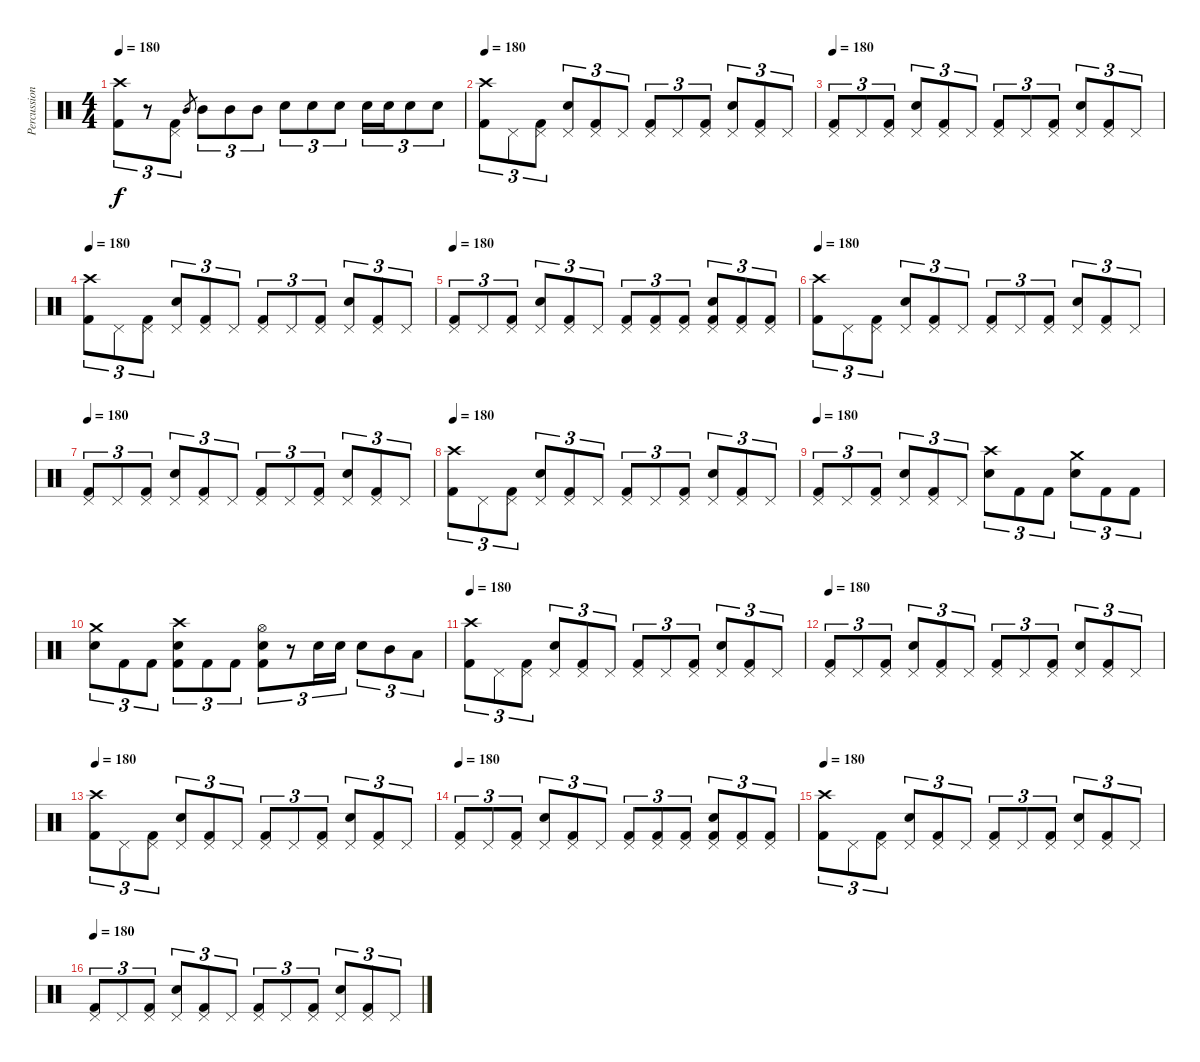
\track ("Percussion" "Percussion") {instrument percussion}
\staff {score}
\articulation defaults
\ts (4 4)
\tempo 180
\clef neutral
\ks c
("Crash high (hit)" "Kick (hit) 2").8{tu (3 2) dy f} r.8{tu (3 2)} ("Pedal Hi-Hat (hit)" "Kick (hit) 2").8{tu (3 2)} "Mid Tom (hit)".8{gr} "Mid Tom (hit)".8{tu (3 2)} "Mid Tom (hit)".8{tu (3 2)} "Mid Tom (hit)".8{tu (3 2)} "Snare (hit) 2".8{tu (3 2)} "Snare (hit) 2".8{tu (3 2)} "Snare (hit) 2".8{tu (3 2)} "Snare (hit) 2".16{tu (3 2)} "Snare (hit) 2".16{tu (3 2)} "Snare (hit) 2".8{tu (3 2)} "Snare (hit) 2".8{tu (3 2)} |
\tempo 180
("Crash high (hit)" "Kick (hit) 2").8{tu (3 2)} "Pedal Hi-Hat (hit)".8{tu (3 2)} ("Pedal Hi-Hat (hit)" "Kick (hit) 2").8{tu (3 2)} ("Pedal Hi-Hat (hit)" "Snare (hit) 2").8{tu (3 2)} ("Pedal Hi-Hat (hit)" "Kick (hit) 2").8{tu (3 2)} "Pedal Hi-Hat (hit)".8{tu (3 2)} ("Pedal Hi-Hat (hit)" "Kick (hit) 2").8{tu (3 2)} "Pedal Hi-Hat (hit)".8{tu (3 2)} ("Pedal Hi-Hat (hit)" "Kick (hit) 2").8{tu (3 2)} ("Pedal Hi-Hat (hit)" "Snare (hit) 2").8{tu (3 2)} ("Pedal Hi-Hat (hit)" "Kick (hit) 2").8{tu (3 2)} "Pedal Hi-Hat (hit)".8{tu (3 2)} |
\tempo 180
("Pedal Hi-Hat (hit)" "Kick (hit) 2").8{tu (3 2)} "Pedal Hi-Hat (hit)".8{tu (3 2)} ("Pedal Hi-Hat (hit)" "Kick (hit) 2").8{tu (3 2)} ("Pedal Hi-Hat (hit)" "Snare (hit) 2").8{tu (3 2)} ("Pedal Hi-Hat (hit)" "Kick (hit) 2").8{tu (3 2)} "Pedal Hi-Hat (hit)".8{tu (3 2)} ("Pedal Hi-Hat (hit)" "Kick (hit) 2").8{tu (3 2)} "Pedal Hi-Hat (hit)".8{tu (3 2)} ("Pedal Hi-Hat (hit)" "Kick (hit) 2").8{tu (3 2)} ("Pedal Hi-Hat (hit)" "Snare (hit) 2").8{tu (3 2)} ("Pedal Hi-Hat (hit)" "Kick (hit) 2").8{tu (3 2)} "Pedal Hi-Hat (hit)".8{tu (3 2)} |
\tempo 180
("Crash high (hit)" "Kick (hit) 2").8{tu (3 2)} "Pedal Hi-Hat (hit)".8{tu (3 2)} ("Pedal Hi-Hat (hit)" "Kick (hit) 2").8{tu (3 2)} ("Pedal Hi-Hat (hit)" "Snare (hit) 2").8{tu (3 2)} ("Pedal Hi-Hat (hit)" "Kick (hit) 2").8{tu (3 2)} "Pedal Hi-Hat (hit)".8{tu (3 2)} ("Pedal Hi-Hat (hit)" "Kick (hit) 2").8{tu (3 2)} "Pedal Hi-Hat (hit)".8{tu (3 2)} ("Pedal Hi-Hat (hit)" "Kick (hit) 2").8{tu (3 2)} ("Pedal Hi-Hat (hit)" "Snare (hit) 2").8{tu (3 2)} ("Pedal Hi-Hat (hit)" "Kick (hit) 2").8{tu (3 2)} "Pedal Hi-Hat (hit)".8{tu (3 2)} |
\tempo 180
("Pedal Hi-Hat (hit)" "Kick (hit) 2").8{tu (3 2)} "Pedal Hi-Hat (hit)".8{tu (3 2)} ("Pedal Hi-Hat (hit)" "Kick (hit) 2").8{tu (3 2)} ("Pedal Hi-Hat (hit)" "Snare (hit) 2").8{tu (3 2)} ("Pedal Hi-Hat (hit)" "Kick (hit) 2").8{tu (3 2)} "Pedal Hi-Hat (hit)".8{tu (3 2)} ("Pedal Hi-Hat (hit)" "Kick (hit) 2").8{tu (3 2)} ("Pedal Hi-Hat (hit)" "Kick (hit) 2").8{tu (3 2)} ("Pedal Hi-Hat (hit)" "Kick (hit) 2").8{tu (3 2)} ("Pedal Hi-Hat (hit)" "Snare (hit) 2" "Kick (hit) 2").8{tu (3 2)} ("Pedal Hi-Hat (hit)" "Kick (hit) 2").8{tu (3 2)} ("Pedal Hi-Hat (hit)" "Kick (hit) 2").8{tu (3 2)} |
\tempo 180
("Crash high (hit)" "Kick (hit) 2").8{tu (3 2)} "Pedal Hi-Hat (hit)".8{tu (3 2)} ("Pedal Hi-Hat (hit)" "Kick (hit) 2").8{tu (3 2)} ("Pedal Hi-Hat (hit)" "Snare (hit) 2").8{tu (3 2)} ("Pedal Hi-Hat (hit)" "Kick (hit) 2").8{tu (3 2)} "Pedal Hi-Hat (hit)".8{tu (3 2)} ("Pedal Hi-Hat (hit)" "Kick (hit) 2").8{tu (3 2)} "Pedal Hi-Hat (hit)".8{tu (3 2)} ("Pedal Hi-Hat (hit)" "Kick (hit) 2").8{tu (3 2)} ("Pedal Hi-Hat (hit)" "Snare (hit) 2").8{tu (3 2)} ("Pedal Hi-Hat (hit)" "Kick (hit) 2").8{tu (3 2)} "Pedal Hi-Hat (hit)".8{tu (3 2)} |
\tempo 180
("Pedal Hi-Hat (hit)" "Kick (hit) 2").8{tu (3 2)} "Pedal Hi-Hat (hit)".8{tu (3 2)} ("Pedal Hi-Hat (hit)" "Kick (hit) 2").8{tu (3 2)} ("Pedal Hi-Hat (hit)" "Snare (hit) 2").8{tu (3 2)} ("Pedal Hi-Hat (hit)" "Kick (hit) 2").8{tu (3 2)} "Pedal Hi-Hat (hit)".8{tu (3 2)} ("Pedal Hi-Hat (hit)" "Kick (hit) 2").8{tu (3 2)} "Pedal Hi-Hat (hit)".8{tu (3 2)} ("Pedal Hi-Hat (hit)" "Kick (hit) 2").8{tu (3 2)} ("Pedal Hi-Hat (hit)" "Snare (hit) 2").8{tu (3 2)} ("Pedal Hi-Hat (hit)" "Kick (hit) 2").8{tu (3 2)} "Pedal Hi-Hat (hit)".8{tu (3 2)} |
\tempo 180
("Crash high (hit)" "Kick (hit) 2").8{tu (3 2)} "Pedal Hi-Hat (hit)".8{tu (3 2)} ("Pedal Hi-Hat (hit)" "Kick (hit) 2").8{tu (3 2)} ("Pedal Hi-Hat (hit)" "Snare (hit) 2").8{tu (3 2)} ("Pedal Hi-Hat (hit)" "Kick (hit) 2").8{tu (3 2)} "Pedal Hi-Hat (hit)".8{tu (3 2)} ("Pedal Hi-Hat (hit)" "Kick (hit) 2").8{tu (3 2)} "Pedal Hi-Hat (hit)".8{tu (3 2)} ("Pedal Hi-Hat (hit)" "Kick (hit) 2").8{tu (3 2)} ("Pedal Hi-Hat (hit)" "Snare (hit) 2").8{tu (3 2)} ("Pedal Hi-Hat (hit)" "Kick (hit) 2").8{tu (3 2)} "Pedal Hi-Hat (hit)".8{tu (3 2)} |
\tempo 180
("Pedal Hi-Hat (hit)" "Kick (hit) 2").8{tu (3 2)} "Pedal Hi-Hat (hit)".8{tu (3 2)} ("Pedal Hi-Hat (hit)" "Kick (hit) 2").8{tu (3 2)} ("Pedal Hi-Hat (hit)" "Snare (hit) 2").8{tu (3 2)} ("Pedal Hi-Hat (hit)" "Kick (hit) 2").8{tu (3 2)} "Pedal Hi-Hat (hit)".8{tu (3 2)} ("Crash high (hit)" "Snare (hit) 2").8{tu (3 2)} "Kick (hit) 2".8{tu (3 2)} "Kick (hit) 2".8{tu (3 2)} ("Crash medium (hit)" "Snare (hit) 2").8{tu (3 2)} "Kick (hit) 2".8{tu (3 2)} "Kick (hit) 2".8{tu (3 2)} |
("Crash medium (hit)" "Snare (hit) 2").8{tu (3 2)} "Kick (hit) 2".8{tu (3 2)} "Kick (hit) 2".8{tu (3 2)} ("Crash high (hit)" "Snare (hit) 2" "Kick (hit) 2").8{tu (3 2)} "Kick (hit) 2".8{tu (3 2)} "Kick (hit) 2".8{tu (3 2)} ("Hi-Hat (open)" "Snare (hit) 2" "Kick (hit) 2").8{tu (3 2)} r.8{tu (3 2)} "Snare (hit) 2".16{tu (3 2)} "Snare (hit) 2".16{tu (3 2)} "Snare (hit) 2".8{tu (3 2)} "Mid Tom (hit)".8{tu (3 2)} "Low Tom (hit)".8{tu (3 2)} |
\tempo 180
("Crash high (hit)" "Kick (hit) 2").8{tu (3 2)} "Pedal Hi-Hat (hit)".8{tu (3 2)} ("Pedal Hi-Hat (hit)" "Kick (hit) 2").8{tu (3 2)} ("Pedal Hi-Hat (hit)" "Snare (hit) 2").8{tu (3 2)} ("Pedal Hi-Hat (hit)" "Kick (hit) 2").8{tu (3 2)} "Pedal Hi-Hat (hit)".8{tu (3 2)} ("Pedal Hi-Hat (hit)" "Kick (hit) 2").8{tu (3 2)} "Pedal Hi-Hat (hit)".8{tu (3 2)} ("Pedal Hi-Hat (hit)" "Kick (hit) 2").8{tu (3 2)} ("Pedal Hi-Hat (hit)" "Snare (hit) 2").8{tu (3 2)} ("Pedal Hi-Hat (hit)" "Kick (hit) 2").8{tu (3 2)} "Pedal Hi-Hat (hit)".8{tu (3 2)} |
\tempo 180
("Pedal Hi-Hat (hit)" "Kick (hit) 2").8{tu (3 2)} "Pedal Hi-Hat (hit)".8{tu (3 2)} ("Pedal Hi-Hat (hit)" "Kick (hit) 2").8{tu (3 2)} ("Pedal Hi-Hat (hit)" "Snare (hit) 2").8{tu (3 2)} ("Pedal Hi-Hat (hit)" "Kick (hit) 2").8{tu (3 2)} "Pedal Hi-Hat (hit)".8{tu (3 2)} ("Pedal Hi-Hat (hit)" "Kick (hit) 2").8{tu (3 2)} "Pedal Hi-Hat (hit)".8{tu (3 2)} ("Pedal Hi-Hat (hit)" "Kick (hit) 2").8{tu (3 2)} ("Pedal Hi-Hat (hit)" "Snare (hit) 2").8{tu (3 2)} ("Pedal Hi-Hat (hit)" "Kick (hit) 2").8{tu (3 2)} "Pedal Hi-Hat (hit)".8{tu (3 2)} |
\tempo 180
("Crash high (hit)" "Kick (hit) 2").8{tu (3 2)} "Pedal Hi-Hat (hit)".8{tu (3 2)} ("Pedal Hi-Hat (hit)" "Kick (hit) 2").8{tu (3 2)} ("Pedal Hi-Hat (hit)" "Snare (hit) 2").8{tu (3 2)} ("Pedal Hi-Hat (hit)" "Kick (hit) 2").8{tu (3 2)} "Pedal Hi-Hat (hit)".8{tu (3 2)} ("Pedal Hi-Hat (hit)" "Kick (hit) 2").8{tu (3 2)} "Pedal Hi-Hat (hit)".8{tu (3 2)} ("Pedal Hi-Hat (hit)" "Kick (hit) 2").8{tu (3 2)} ("Pedal Hi-Hat (hit)" "Snare (hit) 2").8{tu (3 2)} ("Pedal Hi-Hat (hit)" "Kick (hit) 2").8{tu (3 2)} "Pedal Hi-Hat (hit)".8{tu (3 2)} |
\tempo 180
("Pedal Hi-Hat (hit)" "Kick (hit) 2").8{tu (3 2)} "Pedal Hi-Hat (hit)".8{tu (3 2)} ("Pedal Hi-Hat (hit)" "Kick (hit) 2").8{tu (3 2)} ("Pedal Hi-Hat (hit)" "Snare (hit) 2").8{tu (3 2)} ("Pedal Hi-Hat (hit)" "Kick (hit) 2").8{tu (3 2)} "Pedal Hi-Hat (hit)".8{tu (3 2)} ("Pedal Hi-Hat (hit)" "Kick (hit) 2").8{tu (3 2)} ("Pedal Hi-Hat (hit)" "Kick (hit) 2").8{tu (3 2)} ("Pedal Hi-Hat (hit)" "Kick (hit) 2").8{tu (3 2)} ("Pedal Hi-Hat (hit)" "Snare (hit) 2" "Kick (hit) 2").8{tu (3 2)} ("Pedal Hi-Hat (hit)" "Kick (hit) 2").8{tu (3 2)} ("Pedal Hi-Hat (hit)" "Kick (hit) 2").8{tu (3 2)} |
\tempo 180
("Crash high (hit)" "Kick (hit) 2").8{tu (3 2)} "Pedal Hi-Hat (hit)".8{tu (3 2)} ("Pedal Hi-Hat (hit)" "Kick (hit) 2").8{tu (3 2)} ("Pedal Hi-Hat (hit)" "Snare (hit) 2").8{tu (3 2)} ("Pedal Hi-Hat (hit)" "Kick (hit) 2").8{tu (3 2)} "Pedal Hi-Hat (hit)".8{tu (3 2)} ("Pedal Hi-Hat (hit)" "Kick (hit) 2").8{tu (3 2)} "Pedal Hi-Hat (hit)".8{tu (3 2)} ("Pedal Hi-Hat (hit)" "Kick (hit) 2").8{tu (3 2)} ("Pedal Hi-Hat (hit)" "Snare (hit) 2").8{tu (3 2)} ("Pedal Hi-Hat (hit)" "Kick (hit) 2").8{tu (3 2)} "Pedal Hi-Hat (hit)".8{tu (3 2)} |
\tempo 180
("Pedal Hi-Hat (hit)" "Kick (hit) 2").8{tu (3 2)} "Pedal Hi-Hat (hit)".8{tu (3 2)} ("Pedal Hi-Hat (hit)" "Kick (hit) 2").8{tu (3 2)} ("Pedal Hi-Hat (hit)" "Snare (hit) 2").8{tu (3 2)} ("Pedal Hi-Hat (hit)" "Kick (hit) 2").8{tu (3 2)} "Pedal Hi-Hat (hit)".8{tu (3 2)} ("Pedal Hi-Hat (hit)" "Kick (hit) 2").8{tu (3 2)} "Pedal Hi-Hat (hit)".8{tu (3 2)} ("Pedal Hi-Hat (hit)" "Kick (hit) 2").8{tu (3 2)} ("Pedal Hi-Hat (hit)" "Snare (hit) 2").8{tu (3 2)} ("Pedal Hi-Hat (hit)" "Kick (hit) 2").8{tu (3 2)} "Pedal Hi-Hat (hit)".8{tu (3 2)}
